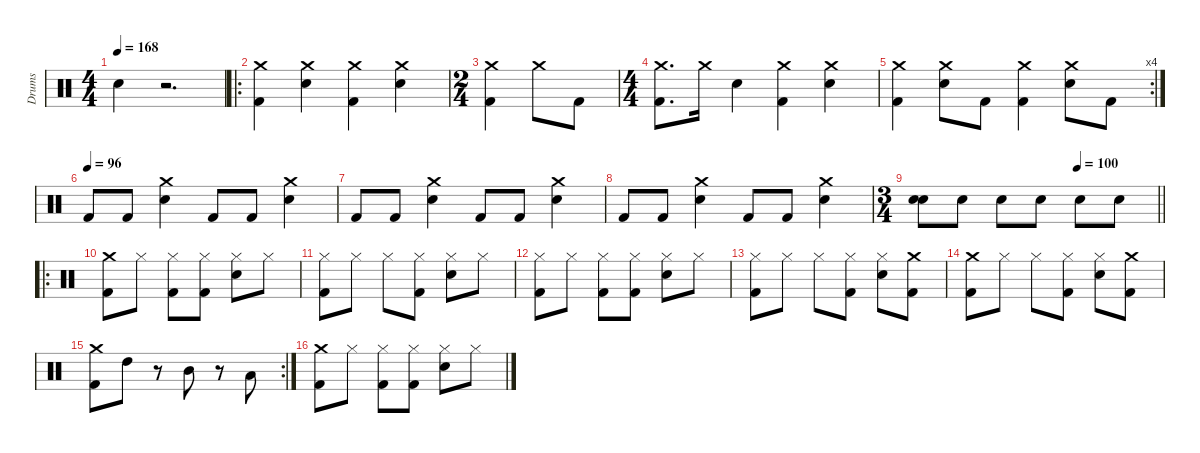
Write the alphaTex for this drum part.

\defaultSystemsLayout 4
\hideDynamics
\bracketExtendMode nobrackets
\firstSystemTrackNameMode fullname
\otherSystemsTrackNameOrientation horizontal
\track ("Drums" "drm.") {instrument percussion}
\staff {score}
\articulation defaults
\ts (4 4)
\tempo 168
\clef neutral
\ks c "Snare (hit) 2".4{dy fff beam Down}
r.2{d beam Down} |
\ro
("Kick (hit) 2" "Crash medium (hit)").4{beam Down} ("Snare (hit) 2" "Crash medium (hit)").4{beam Down} ("Kick (hit) 2" "Crash medium (hit)").4{beam Down} ("Snare (hit) 2" "Crash medium (hit)").4{beam Down} |
\ts (2 4)
\beaming (8 2 2)
("Kick (hit) 2" "Crash medium (hit)").4{beam Down} "Crash medium (hit)".8{beam Down} "Kick (hit) 2".8{beam Down} |
\ts (4 4)
\beaming (8 2 2 2 2)
("Kick (hit) 2" "Crash medium (hit)").8{d beam Down} "Crash medium (hit)".16{beam Down} "Snare (hit) 2".4{beam Down} ("Kick (hit) 2" "Crash medium (hit)").4{beam Down} ("Snare (hit) 2" "Crash medium (hit)").4{beam Down} |
\rc 4
("Kick (hit) 2" "Crash medium (hit)").4{beam Down} ("Snare (hit) 2" "Crash medium (hit)").8{beam Down} "Kick (hit) 2".8{beam Down} ("Kick (hit) 2" "Crash medium (hit)").4{beam Down} ("Snare (hit) 2" "Crash medium (hit)").8{beam Down} "Kick (hit) 2".8{beam Down} |
\tempo (96)
"Kick (hit) 2".8{beam Up} "Kick (hit) 2".8{beam Up} ("Snare (hit) 2" "Crash medium (hit)").4{beam Down} "Kick (hit) 2".8{beam Up} "Kick (hit) 2".8{beam Up} ("Crash medium (hit)" "Snare (hit) 2").4{beam Down} |
"Kick (hit) 2".8{beam Up} "Kick (hit) 2".8{beam Up} ("Snare (hit) 2" "Crash medium (hit)").4{beam Down} "Kick (hit) 2".8{beam Up} "Kick (hit) 2".8{beam Up} ("Crash medium (hit)" "Snare (hit) 2").4{beam Down} |
"Kick (hit) 2".8{beam Up} "Kick (hit) 2".8{beam Up} ("Snare (hit) 2" "Crash medium (hit)").4{beam Down} "Kick (hit) 2".8{beam Up} "Kick (hit) 2".8{beam Up} ("Crash medium (hit)" "Snare (hit) 2").4{beam Down} |
\ts (3 4)
\beaming (8 2 2 2)
\tempo (100 0.666667)
\barLineRight lightlight
("Snare (hit) 2" "Snare (hit) 2").8{dy f beam Down} "Snare (hit) 2".8{dy fff beam Down} "Snare (hit) 2".8{beam Down} "Snare (hit) 2".8{beam Down} "Snare (hit) 2".8{beam Down} "Snare (hit) 2".8{beam Down} |
\ro
("Crash medium (hit)" "Kick (hit) 2").8{beam Down} "Hi-Hat (closed)".8{beam Down} ("Kick (hit) 2" "Hi-Hat (closed)").8{beam Down} ("Kick (hit) 2" "Hi-Hat (closed)").8{beam Down} ("Snare (hit) 2" "Hi-Hat (closed)").8{beam Down} "Hi-Hat (closed)".8{beam Down} |
("Hi-Hat (closed)" "Kick (hit) 2").8{beam Down} "Hi-Hat (closed)".8{beam Down} "Hi-Hat (closed)".8{beam Down} ("Kick (hit) 2" "Hi-Hat (closed)").8{beam Down} ("Hi-Hat (closed)" "Snare (hit) 2").8{beam Down} "Hi-Hat (closed)".8{beam Down} |
("Hi-Hat (closed)" "Kick (hit) 2").8{beam Down} "Hi-Hat (closed)".8{beam Down} ("Kick (hit) 2" "Hi-Hat (closed)").8{beam Down} ("Kick (hit) 2" "Hi-Hat (closed)").8{beam Down} ("Hi-Hat (closed)" "Snare (hit) 2").8{beam Down} "Hi-Hat (closed)".8{beam Down} |
("Hi-Hat (closed)" "Kick (hit) 2").8{beam Down} "Hi-Hat (closed)".8{beam Down} "Hi-Hat (closed)".8{beam Down} ("Kick (hit) 2" "Hi-Hat (closed)").8{beam Down} ("Hi-Hat (closed)" "Snare (hit) 2").8{beam Down} ("Crash medium (hit)" "Kick (hit) 2").8{beam Down} |
("Kick (hit) 2" "Crash medium (hit)").8{beam Down} "Hi-Hat (closed)".8{beam Down} "Hi-Hat (closed)".8{beam Down} ("Kick (hit) 2" "Hi-Hat (closed)").8{beam Down} ("Snare (hit) 2" "Hi-Hat (closed)").8{beam Down} ("Kick (hit) 2" "Crash medium (hit)").8{beam Down} |
\rc 2
("Crash medium (hit)" "Kick (hit) 2").8{beam Down} "High Tom (hit)".8{beam Down} r.8{beam Down} "Mid Tom (hit)".8{beam Down} r.8{beam Down} "Low Tom (hit)".8{beam Up} |
("Crash medium (hit)" "Kick (hit) 2").8{beam Down} "Hi-Hat (closed)".8{beam Down} ("Kick (hit) 2" "Hi-Hat (closed)").8{beam Down} ("Kick (hit) 2" "Hi-Hat (closed)").8{beam Down} ("Snare (hit) 2" "Hi-Hat (closed)").8{beam Down} "Hi-Hat (closed)".8{beam Down}
